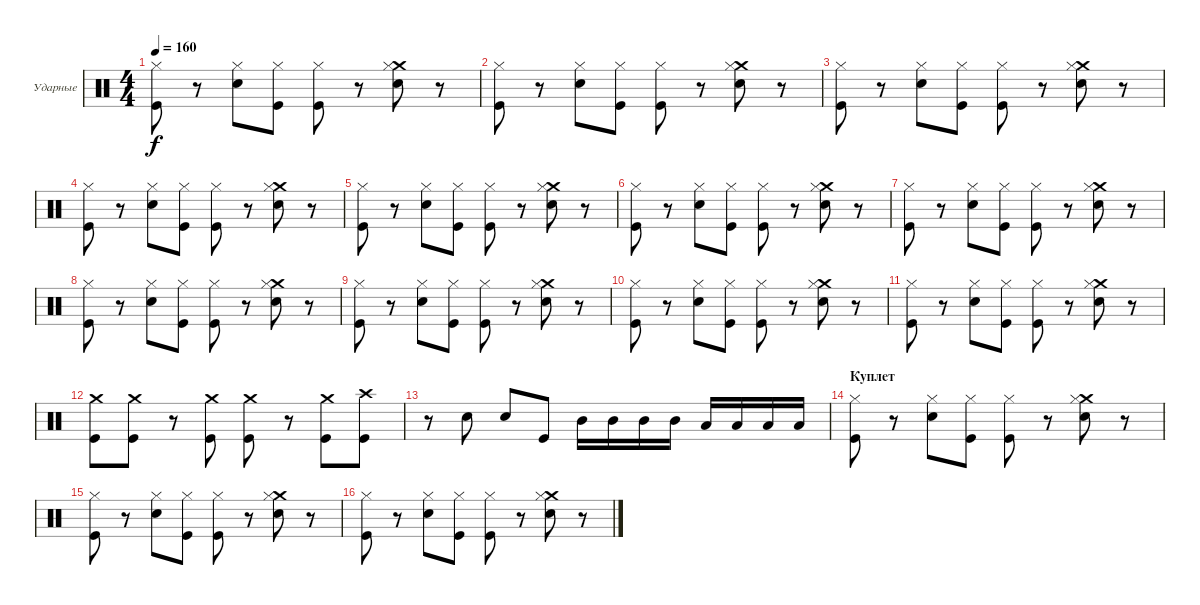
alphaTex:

\bracketExtendMode groupsimilarinstruments
\firstSystemTrackNameOrientation horizontal
\otherSystemsTrackNameOrientation horizontal
\track ("Александр Львов" "Ударные") {instrument percussion}
\staff {score}
\articulation defaults
\ts (4 4)
\tempo 160
\clef neutral
\ks c
("Kick (hit)" "Hi-Hat (closed)").8{dy f} r.8 ("Snare (hit) 2" "Hi-Hat (closed)").8 ("Kick (hit)" "Hi-Hat (closed)").8 ("Kick (hit)" "Hi-Hat (closed)").8 r.8 ("Snare (hit) 2" "Crash medium (hit)" "Hi-Hat (closed)").8 r.8 |
("Kick (hit)" "Hi-Hat (closed)").8 r.8 ("Snare (hit) 2" "Hi-Hat (closed)").8 ("Kick (hit)" "Hi-Hat (closed)").8 ("Kick (hit)" "Hi-Hat (closed)").8 r.8 ("Snare (hit) 2" "Crash medium (hit)" "Hi-Hat (closed)").8 r.8 |
("Kick (hit)" "Hi-Hat (closed)").8 r.8 ("Snare (hit) 2" "Hi-Hat (closed)").8 ("Kick (hit)" "Hi-Hat (closed)").8 ("Kick (hit)" "Hi-Hat (closed)").8 r.8 ("Snare (hit) 2" "Crash medium (hit)" "Hi-Hat (closed)").8 r.8 |
("Kick (hit)" "Hi-Hat (closed)").8 r.8 ("Snare (hit) 2" "Hi-Hat (closed)").8 ("Kick (hit)" "Hi-Hat (closed)").8 ("Kick (hit)" "Hi-Hat (closed)").8 r.8 ("Snare (hit) 2" "Crash medium (hit)" "Hi-Hat (closed)").8 r.8 |
("Kick (hit)" "Hi-Hat (closed)").8 r.8 ("Snare (hit) 2" "Hi-Hat (closed)").8 ("Kick (hit)" "Hi-Hat (closed)").8 ("Kick (hit)" "Hi-Hat (closed)").8 r.8 ("Snare (hit) 2" "Crash medium (hit)" "Hi-Hat (closed)").8 r.8 |
("Kick (hit)" "Hi-Hat (closed)").8 r.8 ("Snare (hit) 2" "Hi-Hat (closed)").8 ("Kick (hit)" "Hi-Hat (closed)").8 ("Kick (hit)" "Hi-Hat (closed)").8 r.8 ("Snare (hit) 2" "Crash medium (hit)" "Hi-Hat (closed)").8 r.8 |
("Kick (hit)" "Hi-Hat (closed)").8 r.8 ("Snare (hit) 2" "Hi-Hat (closed)").8 ("Kick (hit)" "Hi-Hat (closed)").8 ("Kick (hit)" "Hi-Hat (closed)").8 r.8 ("Snare (hit) 2" "Crash medium (hit)" "Hi-Hat (closed)").8 r.8 |
("Kick (hit)" "Hi-Hat (closed)").8 r.8 ("Snare (hit) 2" "Hi-Hat (closed)").8 ("Kick (hit)" "Hi-Hat (closed)").8 ("Kick (hit)" "Hi-Hat (closed)").8 r.8 ("Snare (hit) 2" "Crash medium (hit)" "Hi-Hat (closed)").8 r.8 |
("Kick (hit)" "Hi-Hat (closed)").8 r.8 ("Snare (hit) 2" "Hi-Hat (closed)").8 ("Kick (hit)" "Hi-Hat (closed)").8 ("Kick (hit)" "Hi-Hat (closed)").8 r.8 ("Snare (hit) 2" "Crash medium (hit)" "Hi-Hat (closed)").8 r.8 |
("Kick (hit)" "Hi-Hat (closed)").8 r.8 ("Snare (hit) 2" "Hi-Hat (closed)").8 ("Kick (hit)" "Hi-Hat (closed)").8 ("Kick (hit)" "Hi-Hat (closed)").8 r.8 ("Snare (hit) 2" "Crash medium (hit)" "Hi-Hat (closed)").8 r.8 |
("Kick (hit)" "Hi-Hat (closed)").8 r.8 ("Snare (hit) 2" "Hi-Hat (closed)").8 ("Kick (hit)" "Hi-Hat (closed)").8 ("Kick (hit)" "Hi-Hat (closed)").8 r.8 ("Snare (hit) 2" "Crash medium (hit)" "Hi-Hat (closed)").8 r.8 |
("Kick (hit)" "Crash medium (hit)").8 ("Kick (hit)" "Crash medium (hit)").8 r.8 ("Kick (hit)" "Crash medium (hit)").8 ("Kick (hit)" "Crash medium (hit)").8 r.8 ("Kick (hit)" "Crash medium (hit)").8 ("Kick (hit)" "Crash high (hit)").8 |
r.8 "Snare (hit) 2".8 "Snare (hit) 2".8 "Kick (hit)".8 "Mid Tom (hit)".16 "Mid Tom (hit)".16 "Mid Tom (hit)".16 "Mid Tom (hit)".16 "Low Tom (hit)".16 "Low Tom (hit)".16 "Low Tom (hit)".16 "Low Tom (hit)".16 |
\section ("" "Куплет")
("Kick (hit)" "Hi-Hat (closed)").8 r.8 ("Snare (hit) 2" "Hi-Hat (closed)").8 ("Kick (hit)" "Hi-Hat (closed)").8 ("Kick (hit)" "Hi-Hat (closed)").8 r.8 ("Snare (hit) 2" "Crash medium (hit)" "Hi-Hat (closed)").8 r.8 |
("Kick (hit)" "Hi-Hat (closed)").8 r.8 ("Snare (hit) 2" "Hi-Hat (closed)").8 ("Kick (hit)" "Hi-Hat (closed)").8 ("Kick (hit)" "Hi-Hat (closed)").8 r.8 ("Snare (hit) 2" "Crash medium (hit)" "Hi-Hat (closed)").8 r.8 |
("Kick (hit)" "Hi-Hat (closed)").8 r.8 ("Snare (hit) 2" "Hi-Hat (closed)").8 ("Kick (hit)" "Hi-Hat (closed)").8 ("Kick (hit)" "Hi-Hat (closed)").8 r.8 ("Snare (hit) 2" "Crash medium (hit)" "Hi-Hat (closed)").8 r.8
